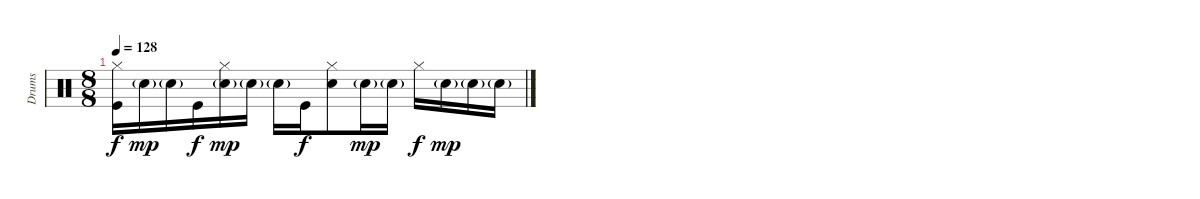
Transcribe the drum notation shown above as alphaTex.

\track ("Drums" "Drums") {instrument percussion}
\staff {score}
\articulation defaults
\ts (8 8)
\tempo 128
\clef neutral
\ks c
("Kick (hit)" "Hi-Hat (closed)").16{dy f} "Electric Snare (hit)"{g}.16{dy mp} "Electric Snare (hit)"{g}.16 "Kick (hit)".16{dy f} ("Electric Snare (hit)"{g} "Hi-Hat (closed)").16{dy mp} "Electric Snare (hit)"{g}.16 "Electric Snare (hit)"{g}.16 "Kick (hit)".16{dy f} ("Electric Snare (hit)" "Hi-Hat (closed)").8 "Electric Snare (hit)"{g}.16{dy mp} "Electric Snare (hit)"{g}.16 "Hi-Hat (closed)".16{dy f} "Electric Snare (hit)"{g}.16{dy mp} "Electric Snare (hit)"{g}.16 "Electric Snare (hit)"{g}.16
